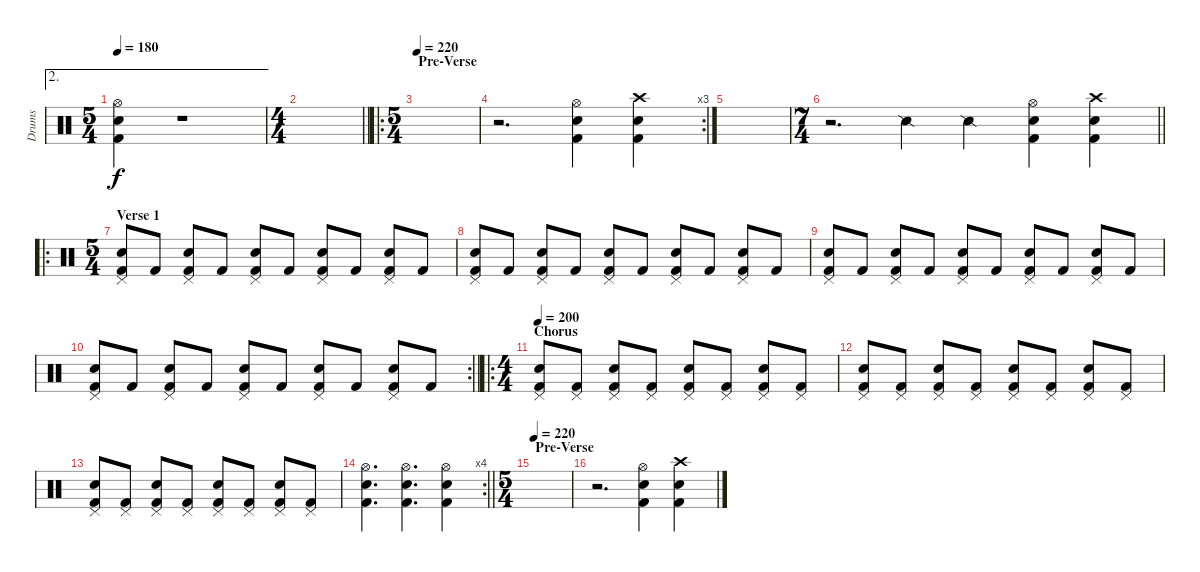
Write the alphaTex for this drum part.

\track ("Drums" "Drums") {instrument percussion}
\staff {score}
\articulation defaults
\ae 2
\ts (5 4)
\tempo 180
\clef neutral
\ks c
("Hi-Hat (open)" "Snare (hit) 2" "Kick (hit) 2").4{dy f} r.1 |
\ts (4 4)
\barLineRight lightlight
|
\ro
\ts (5 4)
\section ("" "Pre-Verse")
\tempo 220
|
\rc 3
r.2{d} ("Hi-Hat (open)" "Snare (hit) 2" "Kick (hit) 2").4 ("Crash high (hit)" "Snare (hit) 2" "Kick (hit) 2").4 |
|
\ts (7 4)
\barLineRight lightlight
r.2{d} "Snare (side stick) 2".4 "Snare (side stick) 2".4 ("Hi-Hat (open)" "Snare (hit) 2" "Kick (hit) 2").4 ("Crash high (hit)" "Snare (hit) 2" "Kick (hit) 2").4 |
\ro
\ts (5 4)
\section ("" "Verse 1")
("Pedal Hi-Hat (hit)" "Snare (hit) 2" "Kick (hit) 2").8 "Kick (hit) 2".8 ("Pedal Hi-Hat (hit)" "Snare (hit) 2" "Kick (hit) 2").8 "Kick (hit) 2".8 ("Pedal Hi-Hat (hit)" "Snare (hit) 2" "Kick (hit) 2").8 "Kick (hit) 2".8 ("Pedal Hi-Hat (hit)" "Snare (hit) 2" "Kick (hit) 2").8 "Kick (hit) 2".8 ("Pedal Hi-Hat (hit)" "Snare (hit) 2" "Kick (hit) 2").8 "Kick (hit) 2".8 |
("Pedal Hi-Hat (hit)" "Snare (hit) 2" "Kick (hit) 2").8 "Kick (hit) 2".8 ("Pedal Hi-Hat (hit)" "Snare (hit) 2" "Kick (hit) 2").8 "Kick (hit) 2".8 ("Pedal Hi-Hat (hit)" "Snare (hit) 2" "Kick (hit) 2").8 "Kick (hit) 2".8 ("Pedal Hi-Hat (hit)" "Snare (hit) 2" "Kick (hit) 2").8 "Kick (hit) 2".8 ("Pedal Hi-Hat (hit)" "Snare (hit) 2" "Kick (hit) 2").8 "Kick (hit) 2".8 |
("Pedal Hi-Hat (hit)" "Snare (hit) 2" "Kick (hit) 2").8 "Kick (hit) 2".8 ("Pedal Hi-Hat (hit)" "Snare (hit) 2" "Kick (hit) 2").8 "Kick (hit) 2".8 ("Pedal Hi-Hat (hit)" "Snare (hit) 2" "Kick (hit) 2").8 "Kick (hit) 2".8 ("Pedal Hi-Hat (hit)" "Snare (hit) 2" "Kick (hit) 2").8 "Kick (hit) 2".8 ("Pedal Hi-Hat (hit)" "Snare (hit) 2" "Kick (hit) 2").8 "Kick (hit) 2".8 |
\rc 2
\barLineRight lightlight
("Pedal Hi-Hat (hit)" "Snare (hit) 2" "Kick (hit) 2").8 "Kick (hit) 2".8 ("Pedal Hi-Hat (hit)" "Snare (hit) 2" "Kick (hit) 2").8 "Kick (hit) 2".8 ("Pedal Hi-Hat (hit)" "Snare (hit) 2" "Kick (hit) 2").8 "Kick (hit) 2".8 ("Pedal Hi-Hat (hit)" "Snare (hit) 2" "Kick (hit) 2").8 "Kick (hit) 2".8 ("Pedal Hi-Hat (hit)" "Snare (hit) 2" "Kick (hit) 2").8 "Kick (hit) 2".8 |
\ro
\ts (4 4)
\section ("" "Chorus")
\tempo 200
("Pedal Hi-Hat (hit)" "Snare (hit) 2" "Kick (hit) 2").8 ("Pedal Hi-Hat (hit)" "Kick (hit) 2").8 ("Pedal Hi-Hat (hit)" "Snare (hit) 2" "Kick (hit) 2").8 ("Pedal Hi-Hat (hit)" "Kick (hit) 2").8 ("Pedal Hi-Hat (hit)" "Snare (hit) 2" "Kick (hit) 2").8 ("Pedal Hi-Hat (hit)" "Kick (hit) 2").8 ("Pedal Hi-Hat (hit)" "Snare (hit) 2" "Kick (hit) 2").8 ("Pedal Hi-Hat (hit)" "Kick (hit) 2").8 |
("Pedal Hi-Hat (hit)" "Snare (hit) 2" "Kick (hit) 2").8 ("Pedal Hi-Hat (hit)" "Kick (hit) 2").8 ("Pedal Hi-Hat (hit)" "Snare (hit) 2" "Kick (hit) 2").8 ("Pedal Hi-Hat (hit)" "Kick (hit) 2").8 ("Pedal Hi-Hat (hit)" "Snare (hit) 2" "Kick (hit) 2").8 ("Pedal Hi-Hat (hit)" "Kick (hit) 2").8 ("Pedal Hi-Hat (hit)" "Snare (hit) 2" "Kick (hit) 2").8 ("Pedal Hi-Hat (hit)" "Kick (hit) 2").8 |
("Pedal Hi-Hat (hit)" "Snare (hit) 2" "Kick (hit) 2").8 ("Pedal Hi-Hat (hit)" "Kick (hit) 2").8 ("Pedal Hi-Hat (hit)" "Snare (hit) 2" "Kick (hit) 2").8 ("Pedal Hi-Hat (hit)" "Kick (hit) 2").8 ("Pedal Hi-Hat (hit)" "Snare (hit) 2" "Kick (hit) 2").8 ("Pedal Hi-Hat (hit)" "Kick (hit) 2").8 ("Pedal Hi-Hat (hit)" "Snare (hit) 2" "Kick (hit) 2").8 ("Pedal Hi-Hat (hit)" "Kick (hit) 2").8 |
\rc 4
\barLineRight lightlight
("Hi-Hat (open)" "Snare (hit) 2" "Kick (hit) 2").4{d} ("Hi-Hat (open)" "Snare (hit) 2" "Kick (hit) 2").4{d} ("Hi-Hat (open)" "Snare (hit) 2" "Kick (hit) 2").4 |
\ts (5 4)
\section ("" "Pre-Verse")
\tempo 220
|
r.2{d} ("Hi-Hat (open)" "Snare (hit) 2" "Kick (hit) 2").4 ("Crash high (hit)" "Snare (hit) 2" "Kick (hit) 2").4
